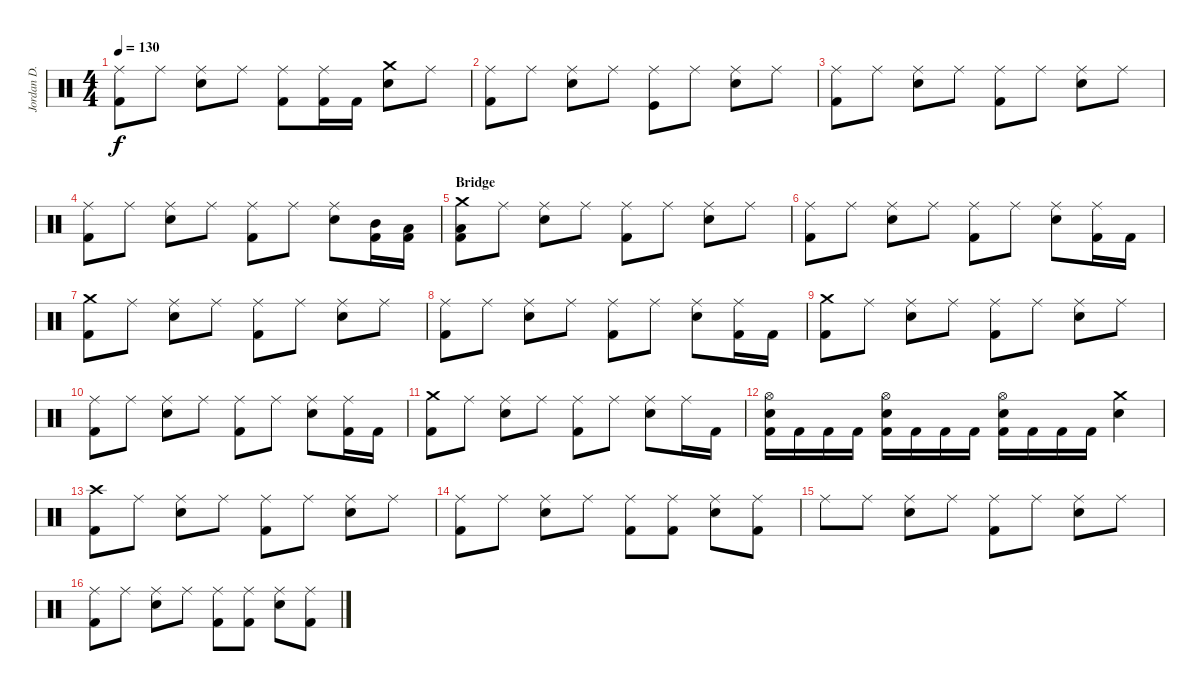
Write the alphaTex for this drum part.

\track ("Jordan D. Samolesky" "Jordan D. ") {instrument percussion}
\staff {score}
\articulation defaults
\ts (4 4)
\tempo 130
\clef neutral
\ks c
("Ride (middle)" "Kick (hit) 2").8{dy f} "Ride (middle)".8 ("Electric Snare (hit)" "Ride (middle)").8 "Ride (middle)".8 ("Ride (middle)" "Kick (hit) 2").8 ("Ride (middle)" "Kick (hit) 2").16 "Kick (hit) 2".16 ("Crash medium (hit)" "Electric Snare (hit)").8 "Ride (middle)".8 |
("Ride (middle)" "Kick (hit) 2").8 "Ride (middle)".8 ("Electric Snare (hit)" "Ride (middle)").8 "Ride (middle)".8 ("Ride (middle)" "Kick (hit)").8 "Ride (middle)".8 ("Electric Snare (hit)" "Ride (middle)").8 "Ride (middle)".8 |
("Ride (middle)" "Kick (hit) 2").8 "Ride (middle)".8 ("Electric Snare (hit)" "Ride (middle)").8 "Ride (middle)".8 ("Ride (middle)" "Kick (hit) 2").8 "Ride (middle)".8 ("Electric Snare (hit)" "Ride (middle)").8 "Ride (middle)".8 |
("Ride (middle)" "Kick (hit) 2").8 "Ride (middle)".8 ("Electric Snare (hit)" "Ride (middle)").8 "Ride (middle)".8 ("Ride (middle)" "Kick (hit) 2").8 "Ride (middle)".8 ("Electric Snare (hit)" "Ride (middle)").8 ("Mid Tom (hit)" "Kick (hit) 2").16 ("Low Tom (hit)" "Kick (hit) 2").16 |
\section ("" "Bridge")
("Crash medium (hit)" "Low Tom (hit)" "Kick (hit) 2").8 "Ride (middle)".8 ("Electric Snare (hit)" "Ride (middle)").8 "Ride (middle)".8 ("Ride (middle)" "Kick (hit) 2").8 "Ride (middle)".8 ("Electric Snare (hit)" "Ride (middle)").8 "Ride (middle)".8 |
("Ride (middle)" "Kick (hit) 2").8 "Ride (middle)".8 ("Electric Snare (hit)" "Ride (middle)").8 "Ride (middle)".8 ("Ride (middle)" "Kick (hit) 2").8 "Ride (middle)".8 ("Electric Snare (hit)" "Ride (middle)").8 ("Ride (middle)" "Kick (hit) 2").16 "Kick (hit) 2".16 |
("Crash medium (hit)" "Kick (hit) 2").8 "Ride (middle)".8 ("Electric Snare (hit)" "Ride (middle)").8 "Ride (middle)".8 ("Ride (middle)" "Kick (hit) 2").8 "Ride (middle)".8 ("Electric Snare (hit)" "Ride (middle)").8 "Ride (middle)".8 |
("Ride (middle)" "Kick (hit) 2").8 "Ride (middle)".8 ("Electric Snare (hit)" "Ride (middle)").8 "Ride (middle)".8 ("Ride (middle)" "Kick (hit) 2").8 "Ride (middle)".8 ("Electric Snare (hit)" "Ride (middle)").8 ("Ride (middle)" "Kick (hit) 2").16 "Kick (hit) 2".16 |
("Crash medium (hit)" "Kick (hit) 2").8 "Ride (middle)".8 ("Electric Snare (hit)" "Ride (middle)").8 "Ride (middle)".8 ("Ride (middle)" "Kick (hit) 2").8 "Ride (middle)".8 ("Electric Snare (hit)" "Ride (middle)").8 "Ride (middle)".8 |
("Ride (middle)" "Kick (hit) 2").8 "Ride (middle)".8 ("Electric Snare (hit)" "Ride (middle)").8 "Ride (middle)".8 ("Ride (middle)" "Kick (hit) 2").8 "Ride (middle)".8 ("Electric Snare (hit)" "Ride (middle)").8 ("Ride (middle)" "Kick (hit) 2").16 "Kick (hit) 2".16 |
("Crash medium (hit)" "Kick (hit) 2").8 "Ride (middle)".8 ("Electric Snare (hit)" "Ride (middle)").8 "Ride (middle)".8 ("Ride (middle)" "Kick (hit) 2").8 "Ride (middle)".8 ("Electric Snare (hit)" "Ride (middle)").8 "Ride (middle)".16 "Kick (hit) 2".16 |
("Electric Snare (hit)" "Hi-Hat (open)" "Kick (hit) 2").16 "Kick (hit) 2".16 "Kick (hit) 2".16 "Kick (hit) 2".16 ("Electric Snare (hit)" "Hi-Hat (open)" "Kick (hit) 2").16 "Kick (hit) 2".16 "Kick (hit) 2".16 "Kick (hit) 2".16 ("Electric Snare (hit)" "Hi-Hat (open)" "Kick (hit) 2").16 "Kick (hit) 2".16 "Kick (hit) 2".16 "Kick (hit) 2".16 ("Electric Snare (hit)" "Crash medium (hit)").4 |
("Crash high (hit)" "Kick (hit) 2").8 "Ride (middle)".8 ("Electric Snare (hit)" "Ride (middle)").8 "Ride (middle)".8 ("Ride (middle)" "Kick (hit) 2").8 "Ride (middle)".8 ("Electric Snare (hit)" "Ride (middle)").8 "Ride (middle)".8 |
("Ride (middle)" "Kick (hit) 2").8 "Ride (middle)".8 ("Electric Snare (hit)" "Ride (middle)").8 "Ride (middle)".8 ("Ride (middle)" "Kick (hit) 2").8 ("Ride (middle)" "Kick (hit) 2").8 ("Electric Snare (hit)" "Ride (middle)").8 ("Ride (middle)" "Kick (hit) 2").8 |
"Ride (middle)".8 "Ride (middle)".8 ("Electric Snare (hit)" "Ride (middle)").8 "Ride (middle)".8 ("Ride (middle)" "Kick (hit) 2").8 "Ride (middle)".8 ("Electric Snare (hit)" "Ride (middle)").8 "Ride (middle)".8 |
("Ride (middle)" "Kick (hit) 2").8 "Ride (middle)".8 ("Electric Snare (hit)" "Ride (middle)").8 "Ride (middle)".8 ("Ride (middle)" "Kick (hit) 2").8 ("Ride (middle)" "Kick (hit) 2").8 ("Electric Snare (hit)" "Ride (middle)").8 ("Ride (middle)" "Kick (hit) 2").8
